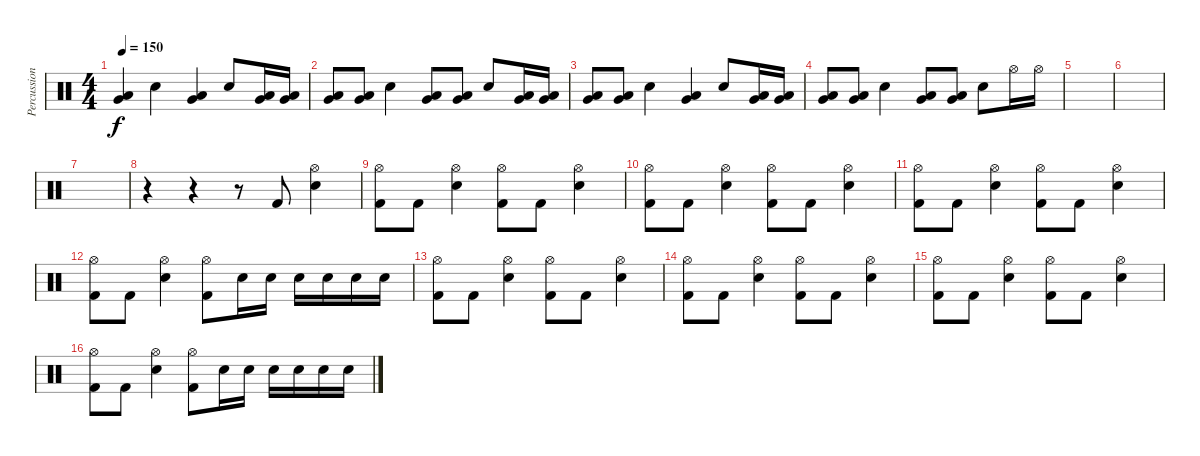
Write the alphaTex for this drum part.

\track ("Percussion" "Percussion") {instrument percussion}
\staff {score}
\articulation defaults
\ts (4 4)
\tempo 150
\clef neutral
\ks c
("Low Tom (hit)" "Very Low Tom (hit)").4{dy f} "Electric Snare (hit)".4 ("Low Tom (hit)" "Very Low Tom (hit)").4 "Electric Snare (hit)".8 ("Low Tom (hit)" "Very Low Tom (hit)").16 ("Very Low Tom (hit)" "Low Floor Tom (hit)").16 |
("Very Low Tom (hit)" "Low Floor Tom (hit)").8 ("Very Low Tom (hit)" "Low Floor Tom (hit)").8 "Electric Snare (hit)".4 ("Low Tom (hit)" "Very Low Tom (hit)").8 ("Low Tom (hit)" "Very Low Tom (hit)").8 "Electric Snare (hit)".8 ("Low Tom (hit)" "Very Low Tom (hit)").16 ("Very Low Tom (hit)" "Low Floor Tom (hit)").16 |
("Very Low Tom (hit)" "Low Floor Tom (hit)").8 ("Very Low Tom (hit)" "Low Floor Tom (hit)").8 "Electric Snare (hit)".4 ("Low Tom (hit)" "Very Low Tom (hit)").4 "Electric Snare (hit)".8 ("Low Tom (hit)" "Very Low Tom (hit)").16 ("Very Low Tom (hit)" "Low Floor Tom (hit)").16 |
("Very Low Tom (hit)" "Low Floor Tom (hit)").8 ("Very Low Tom (hit)" "Low Floor Tom (hit)").8 "Electric Snare (hit)".4 ("Low Tom (hit)" "Very Low Tom (hit)").8 ("Low Tom (hit)" "Very Low Tom (hit)").8 "Electric Snare (hit)".8 "Hi-Hat (open)".16 "Hi-Hat (open)".16 |
|
|
|
r.4 r.4 r.8 "Kick (hit) 2".8 ("Electric Snare (hit)" "Hi-Hat (open)").4 |
("Kick (hit) 2" "Hi-Hat (open)").8 "Kick (hit) 2".8 ("Electric Snare (hit)" "Hi-Hat (open)").4 ("Kick (hit) 2" "Hi-Hat (open)").8 "Kick (hit) 2".8 ("Electric Snare (hit)" "Hi-Hat (open)").4 |
("Kick (hit) 2" "Hi-Hat (open)").8 "Kick (hit) 2".8 ("Electric Snare (hit)" "Hi-Hat (open)").4 ("Kick (hit) 2" "Hi-Hat (open)").8 "Kick (hit) 2".8 ("Electric Snare (hit)" "Hi-Hat (open)").4 |
("Kick (hit) 2" "Hi-Hat (open)").8 "Kick (hit) 2".8 ("Electric Snare (hit)" "Hi-Hat (open)").4 ("Kick (hit) 2" "Hi-Hat (open)").8 "Kick (hit) 2".8 ("Electric Snare (hit)" "Hi-Hat (open)").4 |
("Kick (hit) 2" "Hi-Hat (open)").8 "Kick (hit) 2".8 ("Electric Snare (hit)" "Hi-Hat (open)").4 ("Kick (hit) 2" "Hi-Hat (open)").8 "Electric Snare (hit)".16 "Electric Snare (hit)".16 "Electric Snare (hit)".16 "Electric Snare (hit)".16 "Electric Snare (hit)".16 "Electric Snare (hit)".16 |
("Kick (hit) 2" "Hi-Hat (open)").8 "Kick (hit) 2".8 ("Electric Snare (hit)" "Hi-Hat (open)").4 ("Kick (hit) 2" "Hi-Hat (open)").8 "Kick (hit) 2".8 ("Electric Snare (hit)" "Hi-Hat (open)").4 |
("Kick (hit) 2" "Hi-Hat (open)").8 "Kick (hit) 2".8 ("Electric Snare (hit)" "Hi-Hat (open)").4 ("Kick (hit) 2" "Hi-Hat (open)").8 "Kick (hit) 2".8 ("Electric Snare (hit)" "Hi-Hat (open)").4 |
("Kick (hit) 2" "Hi-Hat (open)").8 "Kick (hit) 2".8 ("Electric Snare (hit)" "Hi-Hat (open)").4 ("Kick (hit) 2" "Hi-Hat (open)").8 "Kick (hit) 2".8 ("Electric Snare (hit)" "Hi-Hat (open)").4 |
("Kick (hit) 2" "Hi-Hat (open)").8 "Kick (hit) 2".8 ("Electric Snare (hit)" "Hi-Hat (open)").4 ("Kick (hit) 2" "Hi-Hat (open)").8 "Electric Snare (hit)".16 "Electric Snare (hit)".16 "Electric Snare (hit)".16 "Electric Snare (hit)".16 "Electric Snare (hit)".16 "Electric Snare (hit)".16
